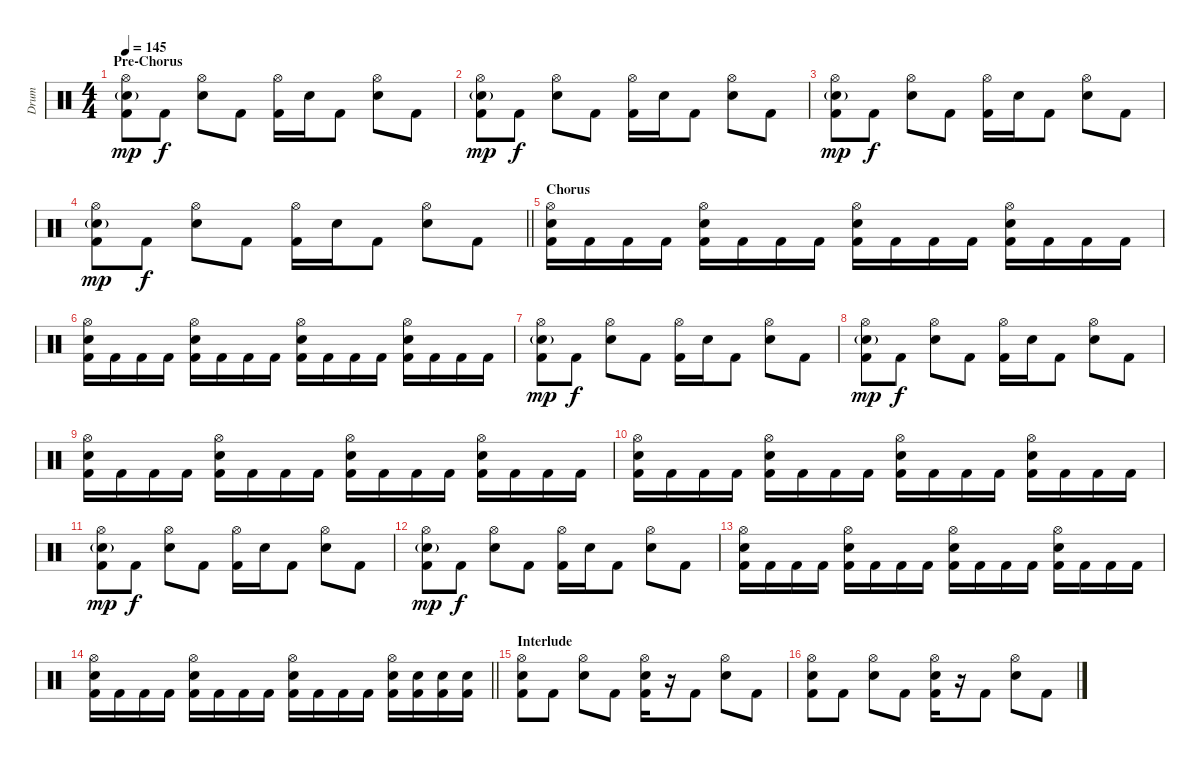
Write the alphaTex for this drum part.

\track ("Drum" "Drum") {instrument percussion}
\staff {score}
\articulation defaults
\ts (4 4)
\section ("" "Pre-Chorus")
\tempo 145
\clef neutral
\ks c
("Hi-Hat (open)" "Electric Snare (hit)"{g} "Kick (hit) 2").8{dy mp} "Kick (hit) 2".8{dy f} ("Hi-Hat (open)" "Electric Snare (hit)").8 "Kick (hit) 2".8 ("Hi-Hat (open)" "Kick (hit) 2").16 "Electric Snare (hit)".16 "Kick (hit) 2".8 ("Hi-Hat (open)" "Electric Snare (hit)").8 "Kick (hit) 2".8 |
("Hi-Hat (open)" "Electric Snare (hit)"{g} "Kick (hit) 2").8{dy mp} "Kick (hit) 2".8{dy f} ("Hi-Hat (open)" "Electric Snare (hit)").8 "Kick (hit) 2".8 ("Hi-Hat (open)" "Kick (hit) 2").16 "Electric Snare (hit)".16 "Kick (hit) 2".8 ("Hi-Hat (open)" "Electric Snare (hit)").8 "Kick (hit) 2".8 |
("Hi-Hat (open)" "Electric Snare (hit)"{g} "Kick (hit) 2").8{dy mp} "Kick (hit) 2".8{dy f} ("Hi-Hat (open)" "Electric Snare (hit)").8 "Kick (hit) 2".8 ("Hi-Hat (open)" "Kick (hit) 2").16 "Electric Snare (hit)".16 "Kick (hit) 2".8 ("Hi-Hat (open)" "Electric Snare (hit)").8 "Kick (hit) 2".8 |
\barLineRight lightlight
("Hi-Hat (open)" "Electric Snare (hit)"{g} "Kick (hit) 2").8{dy mp} "Kick (hit) 2".8{dy f} ("Hi-Hat (open)" "Electric Snare (hit)").8 "Kick (hit) 2".8 ("Hi-Hat (open)" "Kick (hit) 2").16 "Electric Snare (hit)".16 "Kick (hit) 2".8 ("Hi-Hat (open)" "Electric Snare (hit)").8 "Kick (hit) 2".8 |
\section ("" "Chorus")
("Hi-Hat (open)" "Electric Snare (hit)" "Kick (hit) 2").16 "Kick (hit) 2".16 "Kick (hit) 2".16 "Kick (hit) 2".16 ("Hi-Hat (open)" "Electric Snare (hit)" "Kick (hit) 2").16 "Kick (hit) 2".16 "Kick (hit) 2".16 "Kick (hit) 2".16 ("Hi-Hat (open)" "Electric Snare (hit)" "Kick (hit) 2").16 "Kick (hit) 2".16 "Kick (hit) 2".16 "Kick (hit) 2".16 ("Hi-Hat (open)" "Electric Snare (hit)" "Kick (hit) 2").16 "Kick (hit) 2".16 "Kick (hit) 2".16 "Kick (hit) 2".16 |
("Hi-Hat (open)" "Electric Snare (hit)" "Kick (hit) 2").16 "Kick (hit) 2".16 "Kick (hit) 2".16 "Kick (hit) 2".16 ("Hi-Hat (open)" "Electric Snare (hit)" "Kick (hit) 2").16 "Kick (hit) 2".16 "Kick (hit) 2".16 "Kick (hit) 2".16 ("Hi-Hat (open)" "Electric Snare (hit)" "Kick (hit) 2").16 "Kick (hit) 2".16 "Kick (hit) 2".16 "Kick (hit) 2".16 ("Hi-Hat (open)" "Electric Snare (hit)" "Kick (hit) 2").16 "Kick (hit) 2".16 "Kick (hit) 2".16 "Kick (hit) 2".16 |
("Hi-Hat (open)" "Electric Snare (hit)"{g} "Kick (hit) 2").8{dy mp} "Kick (hit) 2".8{dy f} ("Hi-Hat (open)" "Electric Snare (hit)").8 "Kick (hit) 2".8 ("Hi-Hat (open)" "Kick (hit) 2").16 "Electric Snare (hit)".16 "Kick (hit) 2".8 ("Hi-Hat (open)" "Electric Snare (hit)").8 "Kick (hit) 2".8 |
("Hi-Hat (open)" "Electric Snare (hit)"{g} "Kick (hit) 2").8{dy mp} "Kick (hit) 2".8{dy f} ("Hi-Hat (open)" "Electric Snare (hit)").8 "Kick (hit) 2".8 ("Hi-Hat (open)" "Kick (hit) 2").16 "Electric Snare (hit)".16 "Kick (hit) 2".8 ("Hi-Hat (open)" "Electric Snare (hit)").8 "Kick (hit) 2".8 |
("Hi-Hat (open)" "Electric Snare (hit)" "Kick (hit) 2").16 "Kick (hit) 2".16 "Kick (hit) 2".16 "Kick (hit) 2".16 ("Hi-Hat (open)" "Electric Snare (hit)" "Kick (hit) 2").16 "Kick (hit) 2".16 "Kick (hit) 2".16 "Kick (hit) 2".16 ("Hi-Hat (open)" "Electric Snare (hit)" "Kick (hit) 2").16 "Kick (hit) 2".16 "Kick (hit) 2".16 "Kick (hit) 2".16 ("Hi-Hat (open)" "Electric Snare (hit)" "Kick (hit) 2").16 "Kick (hit) 2".16 "Kick (hit) 2".16 "Kick (hit) 2".16 |
("Hi-Hat (open)" "Electric Snare (hit)" "Kick (hit) 2").16 "Kick (hit) 2".16 "Kick (hit) 2".16 "Kick (hit) 2".16 ("Hi-Hat (open)" "Electric Snare (hit)" "Kick (hit) 2").16 "Kick (hit) 2".16 "Kick (hit) 2".16 "Kick (hit) 2".16 ("Hi-Hat (open)" "Electric Snare (hit)" "Kick (hit) 2").16 "Kick (hit) 2".16 "Kick (hit) 2".16 "Kick (hit) 2".16 ("Hi-Hat (open)" "Electric Snare (hit)" "Kick (hit) 2").16 "Kick (hit) 2".16 "Kick (hit) 2".16 "Kick (hit) 2".16 |
("Hi-Hat (open)" "Electric Snare (hit)"{g} "Kick (hit) 2").8{dy mp} "Kick (hit) 2".8{dy f} ("Hi-Hat (open)" "Electric Snare (hit)").8 "Kick (hit) 2".8 ("Hi-Hat (open)" "Kick (hit) 2").16 "Electric Snare (hit)".16 "Kick (hit) 2".8 ("Hi-Hat (open)" "Electric Snare (hit)").8 "Kick (hit) 2".8 |
("Hi-Hat (open)" "Electric Snare (hit)"{g} "Kick (hit) 2").8{dy mp} "Kick (hit) 2".8{dy f} ("Hi-Hat (open)" "Electric Snare (hit)").8 "Kick (hit) 2".8 ("Hi-Hat (open)" "Kick (hit) 2").16 "Electric Snare (hit)".16 "Kick (hit) 2".8 ("Hi-Hat (open)" "Electric Snare (hit)").8 "Kick (hit) 2".8 |
("Hi-Hat (open)" "Electric Snare (hit)" "Kick (hit) 2").16 "Kick (hit) 2".16 "Kick (hit) 2".16 "Kick (hit) 2".16 ("Hi-Hat (open)" "Electric Snare (hit)" "Kick (hit) 2").16 "Kick (hit) 2".16 "Kick (hit) 2".16 "Kick (hit) 2".16 ("Hi-Hat (open)" "Electric Snare (hit)" "Kick (hit) 2").16 "Kick (hit) 2".16 "Kick (hit) 2".16 "Kick (hit) 2".16 ("Hi-Hat (open)" "Electric Snare (hit)" "Kick (hit) 2").16 "Kick (hit) 2".16 "Kick (hit) 2".16 "Kick (hit) 2".16 |
\barLineRight lightlight
("Hi-Hat (open)" "Electric Snare (hit)" "Kick (hit) 2").16 "Kick (hit) 2".16 "Kick (hit) 2".16 "Kick (hit) 2".16 ("Hi-Hat (open)" "Electric Snare (hit)" "Kick (hit) 2").16 "Kick (hit) 2".16 "Kick (hit) 2".16 "Kick (hit) 2".16 ("Hi-Hat (open)" "Electric Snare (hit)" "Kick (hit) 2").16 "Kick (hit) 2".16 "Kick (hit) 2".16 "Kick (hit) 2".16 ("Hi-Hat (open)" "Electric Snare (hit)" "Kick (hit) 2").16 ("Electric Snare (hit)" "Kick (hit) 2").16 ("Electric Snare (hit)" "Kick (hit) 2").16 ("Electric Snare (hit)" "Kick (hit) 2").16 |
\section ("" "Interlude")
("Hi-Hat (open)" "Electric Snare (hit)" "Kick (hit) 2").8 "Kick (hit) 2".8 ("Hi-Hat (open)" "Electric Snare (hit)").8 "Kick (hit) 2".8 ("Hi-Hat (open)" "Electric Snare (hit)" "Kick (hit) 2").16 r.16 "Kick (hit) 2".8 ("Hi-Hat (open)" "Electric Snare (hit)").8 "Kick (hit) 2".8 |
("Hi-Hat (open)" "Electric Snare (hit)" "Kick (hit) 2").8 "Kick (hit) 2".8 ("Hi-Hat (open)" "Electric Snare (hit)").8 "Kick (hit) 2".8 ("Hi-Hat (open)" "Electric Snare (hit)" "Kick (hit) 2").16 r.16 "Kick (hit) 2".8 ("Hi-Hat (open)" "Electric Snare (hit)").8 "Kick (hit) 2".8
